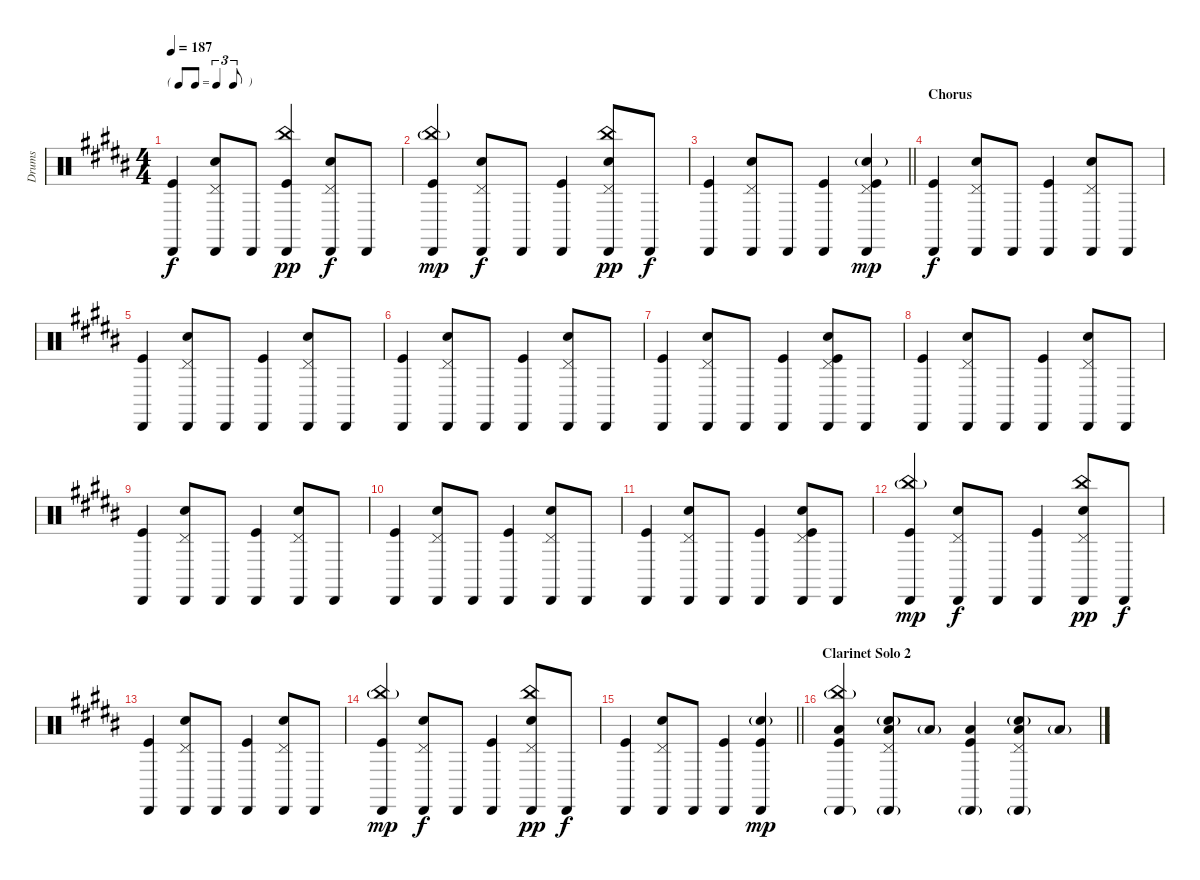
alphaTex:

\track ("Drums" "Drums") {instrument percussion}
\staff {score}
\articulation defaults
\ts (4 4)
\tf triplet8th
\tempo 187
\clef neutral
\ks b
("Cabasa (hit)" "Kick (hit)").4{dy f} ("Pedal Hi-Hat (hit)" "Cabasa (hit)" "Snare (hit) 2").8 "Cabasa (hit)".8 ("Cabasa (hit)" "China (hit)" "Kick (hit)").4{dy pp} ("Pedal Hi-Hat (hit)" "Cabasa (hit)" "Snare (hit) 2").8{dy f} "Cabasa (hit)".8 |
("China (hit)"{g} "Cabasa (hit)" "Kick (hit)").4{dy mp} ("Pedal Hi-Hat (hit)" "Cabasa (hit)" "Snare (hit) 2").8{dy f} "Cabasa (hit)".8 ("Cabasa (hit)" "Kick (hit)").4 ("Pedal Hi-Hat (hit)" "Cabasa (hit)" "Snare (hit) 2" "China (hit)").8{dy pp} "Cabasa (hit)".8{dy f} |
\barLineRight lightlight
("Cabasa (hit)" "Kick (hit)").4 ("Pedal Hi-Hat (hit)" "Cabasa (hit)" "Snare (hit) 2").8 "Cabasa (hit)".8 ("Cabasa (hit)" "Kick (hit)").4 ("Pedal Hi-Hat (hit)" "Cabasa (hit)" "Snare (hit) 2"{g} "Kick (hit)").4{dy mp} |
\section ("" "Chorus")
("Cabasa (hit)" "Kick (hit)").4{dy f} ("Pedal Hi-Hat (hit)" "Cabasa (hit)" "Snare (hit) 2").8 "Cabasa (hit)".8 ("Cabasa (hit)" "Kick (hit)").4 ("Pedal Hi-Hat (hit)" "Cabasa (hit)" "Snare (hit) 2").8 "Cabasa (hit)".8 |
("Cabasa (hit)" "Kick (hit)").4 ("Pedal Hi-Hat (hit)" "Cabasa (hit)" "Snare (hit) 2").8 "Cabasa (hit)".8 ("Cabasa (hit)" "Kick (hit)").4 ("Pedal Hi-Hat (hit)" "Cabasa (hit)" "Snare (hit) 2").8 "Cabasa (hit)".8 |
("Cabasa (hit)" "Kick (hit)").4 ("Pedal Hi-Hat (hit)" "Cabasa (hit)" "Snare (hit) 2").8 "Cabasa (hit)".8 ("Cabasa (hit)" "Kick (hit)").4 ("Pedal Hi-Hat (hit)" "Cabasa (hit)" "Snare (hit) 2").8 "Cabasa (hit)".8 |
("Cabasa (hit)" "Kick (hit)").4 ("Pedal Hi-Hat (hit)" "Cabasa (hit)" "Snare (hit) 2").8 "Cabasa (hit)".8 ("Cabasa (hit)" "Kick (hit)").4 ("Pedal Hi-Hat (hit)" "Cabasa (hit)" "Snare (hit) 2" "Kick (hit)").8 "Cabasa (hit)".8 |
("Cabasa (hit)" "Kick (hit)").4 ("Pedal Hi-Hat (hit)" "Cabasa (hit)" "Snare (hit) 2").8 "Cabasa (hit)".8 ("Cabasa (hit)" "Kick (hit)").4 ("Pedal Hi-Hat (hit)" "Cabasa (hit)" "Snare (hit) 2").8 "Cabasa (hit)".8 |
("Cabasa (hit)" "Kick (hit)").4 ("Pedal Hi-Hat (hit)" "Cabasa (hit)" "Snare (hit) 2").8 "Cabasa (hit)".8 ("Cabasa (hit)" "Kick (hit)").4 ("Pedal Hi-Hat (hit)" "Cabasa (hit)" "Snare (hit) 2").8 "Cabasa (hit)".8 |
("Cabasa (hit)" "Kick (hit)").4 ("Pedal Hi-Hat (hit)" "Cabasa (hit)" "Snare (hit) 2").8 "Cabasa (hit)".8 ("Cabasa (hit)" "Kick (hit)").4 ("Pedal Hi-Hat (hit)" "Cabasa (hit)" "Snare (hit) 2").8 "Cabasa (hit)".8 |
("Cabasa (hit)" "Kick (hit)").4 ("Pedal Hi-Hat (hit)" "Cabasa (hit)" "Snare (hit) 2").8 "Cabasa (hit)".8 ("Cabasa (hit)" "Kick (hit)").4 ("Pedal Hi-Hat (hit)" "Cabasa (hit)" "Snare (hit) 2" "Kick (hit)").8 "Cabasa (hit)".8 |
("China (hit)"{g} "Cabasa (hit)" "Kick (hit)").4{dy mp} ("Pedal Hi-Hat (hit)" "Cabasa (hit)" "Snare (hit) 2").8{dy f} "Cabasa (hit)".8 ("Cabasa (hit)" "Kick (hit)").4 ("Pedal Hi-Hat (hit)" "Cabasa (hit)" "Snare (hit) 2" "China (hit)").8{dy pp} "Cabasa (hit)".8{dy f} |
("Cabasa (hit)" "Kick (hit)").4 ("Pedal Hi-Hat (hit)" "Cabasa (hit)" "Snare (hit) 2").8 "Cabasa (hit)".8 ("Cabasa (hit)" "Kick (hit)").4 ("Pedal Hi-Hat (hit)" "Cabasa (hit)" "Snare (hit) 2").8 "Cabasa (hit)".8 |
("China (hit)"{g} "Cabasa (hit)" "Kick (hit)").4{dy mp} ("Pedal Hi-Hat (hit)" "Cabasa (hit)" "Snare (hit) 2").8{dy f} "Cabasa (hit)".8 ("Cabasa (hit)" "Kick (hit)").4 ("Pedal Hi-Hat (hit)" "Cabasa (hit)" "Snare (hit) 2" "China (hit)").8{dy pp} "Cabasa (hit)".8{dy f} |
\barLineRight lightlight
("Cabasa (hit)" "Kick (hit)").4 ("Pedal Hi-Hat (hit)" "Cabasa (hit)" "Snare (hit) 2").8 "Cabasa (hit)".8 ("Cabasa (hit)" "Kick (hit)").4 ("Cabasa (hit)" "Snare (hit) 2"{g} "Kick (hit)").4{dy mp} |
\section ("" "Clarinet Solo 2")
("China (hit)"{g} "Cabasa (hit)"{g} "Low Floor Tom (hit)" "Kick (hit)").4 ("Pedal Hi-Hat (hit)" "Cabasa (hit)"{g} "Snare (hit) 2"{g} "Low Floor Tom (hit)").8 "Low Floor Tom (hit)"{g}.8 ("Cabasa (hit)"{g} "Low Floor Tom (hit)" "Kick (hit)").4 ("Pedal Hi-Hat (hit)" "Cabasa (hit)"{g} "Snare (hit) 2"{g} "Low Floor Tom (hit)").8 "Low Floor Tom (hit)"{g}.8
